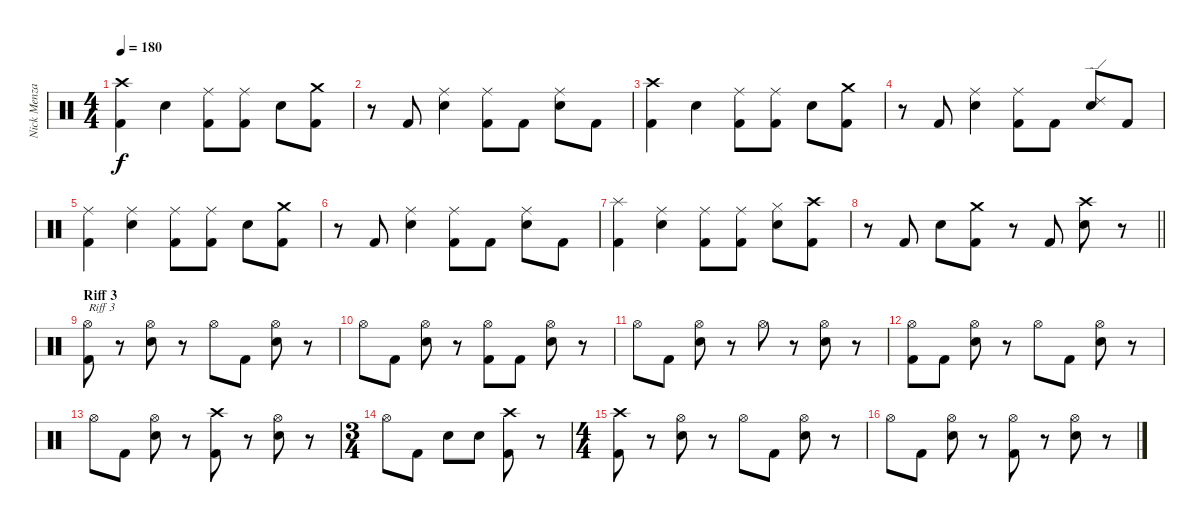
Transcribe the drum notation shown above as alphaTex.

\track ("Nick Menza" "Nick Menza") {instrument percussion}
\staff {score}
\articulation defaults
\ts (4 4)
\tempo 180
\clef neutral
\ks c
("Crash high (hit)" "Kick (hit) 2").4{dy f} "Snare (hit) 2".4 ("Ride (middle)" "Kick (hit) 2").8 ("Ride (middle)" "Kick (hit) 2").8 "Snare (hit) 2".8 ("Crash medium (hit)" "Kick (hit) 2").8 |
r.8 "Kick (hit) 2".8 ("Ride (middle)" "Snare (hit) 2").4 ("Ride (middle)" "Kick (hit) 2").8 "Kick (hit) 2".8 ("Ride (middle)" "Snare (hit) 2").8 "Kick (hit) 2".8 |
("Crash high (hit)" "Kick (hit) 2").4 "Snare (hit) 2".4 ("Ride (middle)" "Kick (hit) 2").8 ("Ride (middle)" "Kick (hit) 2").8 "Snare (hit) 2".8 ("Crash medium (hit)" "Kick (hit) 2").8 |
r.8 "Kick (hit) 2".8 ("Ride (middle)" "Snare (hit) 2").4 ("Ride (middle)" "Kick (hit) 2").8 "Kick (hit) 2".8 ("Ride (edge) 2" "Snare (hit) 2").8 "Kick (hit) 2".8 |
("Ride (middle)" "Kick (hit) 2").4 ("Ride (middle)" "Snare (hit) 2").4 ("Ride (middle)" "Kick (hit) 2").8 ("Ride (middle)" "Kick (hit) 2").8 "Snare (hit) 2".8 ("Crash medium (hit)" "Kick (hit) 2").8 |
r.8 "Kick (hit) 2".8 ("Ride (middle)" "Snare (hit) 2").4 ("Ride (middle)" "Kick (hit) 2").8 "Kick (hit) 2".8 ("Ride (middle)" "Snare (hit) 2").8 "Kick (hit) 2".8 |
("Splash (hit)" "Kick (hit) 2").4 ("Ride (middle)" "Snare (hit) 2").4 ("Ride (middle)" "Kick (hit) 2").8 ("Ride (middle)" "Kick (hit) 2").8 ("Hi-Hat (closed)" "Snare (hit) 2").8 ("Crash high (hit)" "Kick (hit) 2").8 |
\barLineRight lightlight
r.8 "Kick (hit) 2".8 "Snare (hit) 2".8 ("Crash medium (hit)" "Kick (hit) 2").8 r.8 "Kick (hit) 2".8 ("Crash high (hit)" "Snare (hit) 2").8 r.8 |
\section ("" "Riff 3")
("Hi-Hat (open)" "Kick (hit) 2").8{txt "Riff 3"} r.8 ("Hi-Hat (open)" "Snare (hit) 2").8 r.8 "Hi-Hat (open)".8 "Kick (hit) 2".8 ("Hi-Hat (open)" "Snare (hit) 2").8 r.8 |
"Hi-Hat (open)".8 "Kick (hit) 2".8 ("Hi-Hat (open)" "Snare (hit) 2").8 r.8 ("Hi-Hat (open)" "Kick (hit) 2").8 "Kick (hit) 2".8 ("Hi-Hat (open)" "Snare (hit) 2").8 r.8 |
"Hi-Hat (open)".8 "Kick (hit) 2".8 ("Hi-Hat (open)" "Snare (hit) 2").8 r.8 "Hi-Hat (open)".8 r.8 ("Hi-Hat (open)" "Snare (hit) 2").8 r.8 |
("Hi-Hat (open)" "Kick (hit) 2").8 "Kick (hit) 2".8 ("Hi-Hat (open)" "Snare (hit) 2").8 r.8 "Hi-Hat (open)".8 "Kick (hit) 2".8 ("Hi-Hat (open)" "Snare (hit) 2").8 r.8 |
"Hi-Hat (open)".8 "Kick (hit) 2".8 ("Hi-Hat (open)" "Snare (hit) 2").8 r.8 ("Crash high (hit)" "Kick (hit) 2").8 r.8 ("Hi-Hat (open)" "Snare (hit) 2").8 r.8 |
\ts (3 4)
"Hi-Hat (open)".8 "Kick (hit) 2".8 "Snare (hit) 2".8 "Snare (hit) 2".8 ("Crash high (hit)" "Kick (hit) 2").8 r.8 |
\ts (4 4)
("Crash high (hit)" "Kick (hit) 2").8 r.8 ("Hi-Hat (open)" "Snare (hit) 2").8 r.8 "Hi-Hat (open)".8 "Kick (hit) 2".8 ("Hi-Hat (open)" "Snare (hit) 2").8 r.8 |
"Hi-Hat (open)".8 "Kick (hit) 2".8 ("Hi-Hat (open)" "Snare (hit) 2").8 r.8 ("Hi-Hat (open)" "Kick (hit) 2").8 r.8 ("Hi-Hat (open)" "Snare (hit) 2").8 r.8
